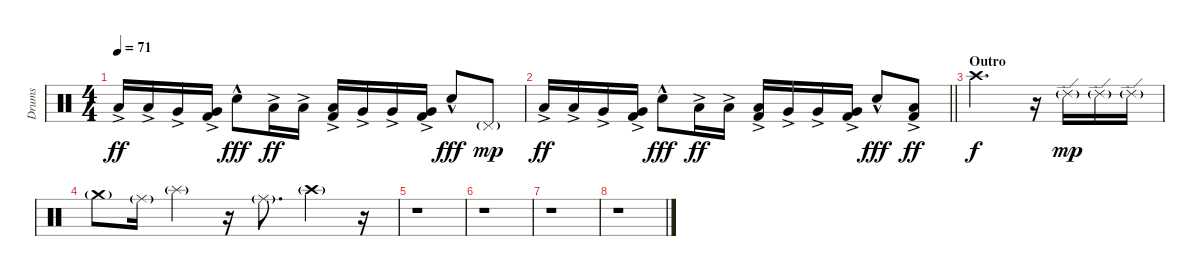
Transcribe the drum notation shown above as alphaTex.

\track ("Drums" "Drums") {instrument percussion}
\staff {score}
\articulation defaults
\ts (4 4)
\tempo 71
\clef neutral
\ks c "Low Floor Tom (hit)"{ac}.16{dy ff} "Low Floor Tom (hit)"{ac}.16 "Very Low Tom (hit)"{ac}.16
("Very Low Tom (hit)"{ac} "Kick (hit) 2"{ac}).16 "Electric Snare (hit)"{hac}.8{dy fff} "Low Floor Tom (hit)"{ac}.16{dy ff} "Low Floor Tom (hit)"{ac}.16 ("Low Floor Tom (hit)"{ac} "Kick (hit) 2"{ac}).16 "Very Low Tom (hit)"{ac}.16 "Very Low Tom (hit)"{ac}.16 ("Very Low Tom (hit)"{ac} "Kick (hit) 2"{ac}).16 "Electric Snare (hit)"{hac}.8{dy fff} "Pedal Hi-Hat (hit)"{g}.8{dy mp} |
\barLineRight lightlight "Low Floor Tom (hit)"{ac}.16{dy ff} "Low Floor Tom (hit)"{ac}.16 "Very Low Tom (hit)"{ac}.16
("Very Low Tom (hit)" "Kick (hit) 2"{ac}).16 "Electric Snare (hit)"{hac}.8{dy fff} "Low Floor Tom (hit)"{ac}.16{dy ff} "Low Floor Tom (hit)"{ac}.16 ("Low Floor Tom (hit)"{ac} "Kick (hit) 2"{ac}).16 "Very Low Tom (hit)"{ac}.16 "Very Low Tom (hit)"{ac}.16 ("Very Low Tom (hit)"{ac} "Kick (hit) 2"{ac}).16 "Electric Snare (hit)"{hac}.8{dy fff} ("Low Floor Tom (hit)"{ac} "Kick (hit) 2").8{dy ff} |
\section ("" "Outro")
"Crash high (hit)".2{d dy f} r.16 "Ride (edge) 2"{g}.16{dy mp} "Ride (edge) 2"{g}.16 "Ride (edge) 2"{g}.16 |
"Crash medium (hit)"{g}.8 "Ride (middle)"{g}.16 "Splash (hit)"{g}.4 r.16 "Ride (middle)"{g}.8{d} "Crash high (hit)"{g}.4 r.16 |
r.1 |
r.1 |
r.1 |
r.1
